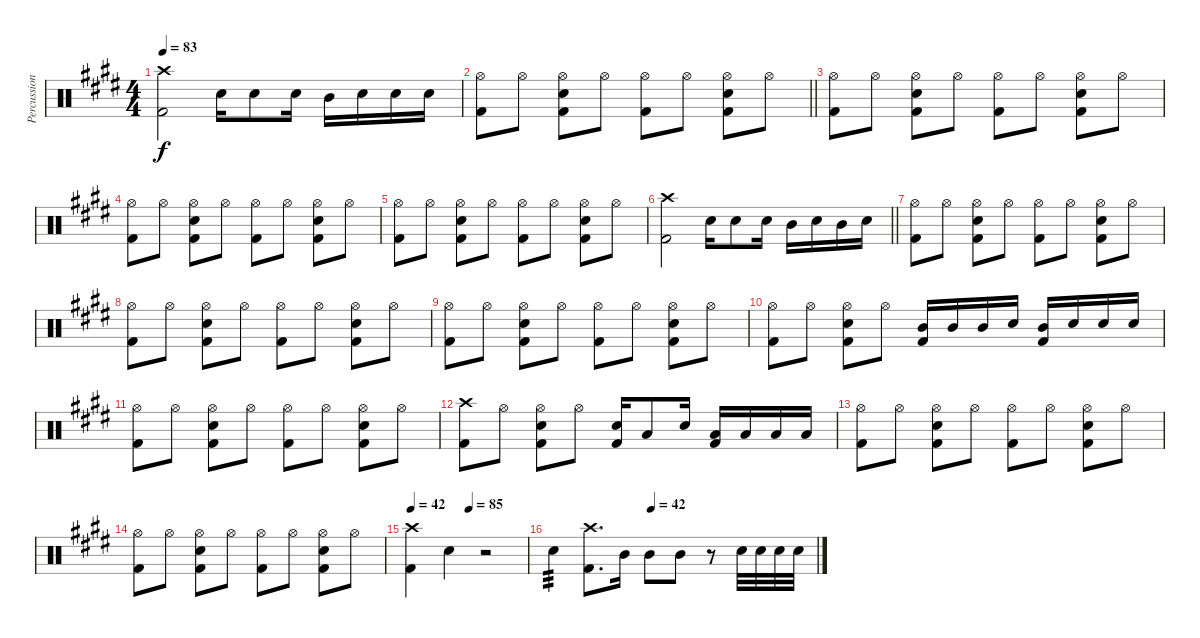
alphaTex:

\track ("Percussion" "Percussion") {instrument percussion}
\staff {score}
\articulation defaults
\ts (4 4)
\tempo 83
\clef neutral
\ks e
("Crash high (hit)" "Kick (hit) 2").2{dy f} "Snare (hit) 2".16 "Snare (hit) 2".8 "Snare (hit) 2".16 "Mid Tom (hit)".16 "Snare (hit) 2".16 "Snare (hit) 2".16 "Snare (hit) 2".16 |
\barLineRight lightlight
("Hi-Hat (open)" "Kick (hit) 2").8 "Hi-Hat (open)".8 ("Hi-Hat (open)" "Kick (hit) 2" "Snare (hit) 2").8 "Hi-Hat (open)".8 ("Hi-Hat (open)" "Kick (hit) 2").8 "Hi-Hat (open)".8 ("Hi-Hat (open)" "Kick (hit) 2" "Snare (hit) 2").8 "Hi-Hat (open)".8 |
("Hi-Hat (open)" "Kick (hit) 2").8 "Hi-Hat (open)".8 ("Hi-Hat (open)" "Kick (hit) 2" "Snare (hit) 2").8 "Hi-Hat (open)".8 ("Hi-Hat (open)" "Kick (hit) 2").8 "Hi-Hat (open)".8 ("Hi-Hat (open)" "Kick (hit) 2" "Snare (hit) 2").8 "Hi-Hat (open)".8 |
("Hi-Hat (open)" "Kick (hit) 2").8 "Hi-Hat (open)".8 ("Hi-Hat (open)" "Kick (hit) 2" "Snare (hit) 2").8 "Hi-Hat (open)".8 ("Hi-Hat (open)" "Kick (hit) 2").8 "Hi-Hat (open)".8 ("Hi-Hat (open)" "Kick (hit) 2" "Snare (hit) 2").8 "Hi-Hat (open)".8 |
("Hi-Hat (open)" "Kick (hit) 2").8 "Hi-Hat (open)".8 ("Hi-Hat (open)" "Kick (hit) 2" "Snare (hit) 2").8 "Hi-Hat (open)".8 ("Hi-Hat (open)" "Kick (hit) 2").8 "Hi-Hat (open)".8 ("Hi-Hat (open)" "Kick (hit) 2" "Snare (hit) 2").8 "Hi-Hat (open)".8 |
\barLineRight lightlight
("Crash high (hit)" "Kick (hit) 2").2 "Snare (hit) 2".16 "Snare (hit) 2".8 "Snare (hit) 2".16 "Mid Tom (hit)".16 "Snare (hit) 2".16 "Mid Tom (hit)".16 "Snare (hit) 2".16 |
("Hi-Hat (open)" "Kick (hit) 2").8 "Hi-Hat (open)".8 ("Hi-Hat (open)" "Kick (hit) 2" "Snare (hit) 2").8 "Hi-Hat (open)".8 ("Hi-Hat (open)" "Kick (hit) 2").8 "Hi-Hat (open)".8 ("Hi-Hat (open)" "Kick (hit) 2" "Snare (hit) 2").8 "Hi-Hat (open)".8 |
("Hi-Hat (open)" "Kick (hit) 2").8 "Hi-Hat (open)".8 ("Hi-Hat (open)" "Kick (hit) 2" "Snare (hit) 2").8 "Hi-Hat (open)".8 ("Hi-Hat (open)" "Kick (hit) 2").8 "Hi-Hat (open)".8 ("Hi-Hat (open)" "Kick (hit) 2" "Snare (hit) 2").8 "Hi-Hat (open)".8 |
("Hi-Hat (open)" "Kick (hit) 2").8 "Hi-Hat (open)".8 ("Hi-Hat (open)" "Kick (hit) 2" "Snare (hit) 2").8 "Hi-Hat (open)".8 ("Hi-Hat (open)" "Kick (hit) 2").8 "Hi-Hat (open)".8 ("Hi-Hat (open)" "Kick (hit) 2" "Snare (hit) 2").8 "Hi-Hat (open)".8 |
("Hi-Hat (open)" "Kick (hit) 2").8 "Hi-Hat (open)".8 ("Hi-Hat (open)" "Kick (hit) 2" "Snare (hit) 2").8 "Hi-Hat (open)".8 ("Mid Tom (hit)" "Kick (hit) 2").16 "Mid Tom (hit)".16 "Mid Tom (hit)".16 "Snare (hit) 2".16 ("Mid Tom (hit)" "Kick (hit) 2").16 "Snare (hit) 2".16 "Snare (hit) 2".16 "Snare (hit) 2".16 |
("Hi-Hat (open)" "Kick (hit) 2").8 "Hi-Hat (open)".8 ("Hi-Hat (open)" "Kick (hit) 2" "Snare (hit) 2").8 "Hi-Hat (open)".8 ("Hi-Hat (open)" "Kick (hit) 2").8 "Hi-Hat (open)".8 ("Hi-Hat (open)" "Kick (hit) 2" "Snare (hit) 2").8 "Hi-Hat (open)".8 |
("Crash high (hit)" "Kick (hit) 2").8 "Hi-Hat (open)".8 ("Hi-Hat (open)" "Snare (hit) 2" "Kick (hit) 2").8 "Hi-Hat (open)".8 ("Snare (hit) 2" "Kick (hit) 2").16 "Low Floor Tom (hit)".8 "Snare (hit) 2".16 ("Low Floor Tom (hit)" "Kick (hit) 2").16 "Low Floor Tom (hit)".16 "Low Floor Tom (hit)".16 "Low Floor Tom (hit)".16 |
("Hi-Hat (open)" "Kick (hit) 2").8 "Hi-Hat (open)".8 ("Hi-Hat (open)" "Kick (hit) 2" "Snare (hit) 2").8 "Hi-Hat (open)".8 ("Hi-Hat (open)" "Kick (hit) 2").8 "Hi-Hat (open)".8 ("Hi-Hat (open)" "Kick (hit) 2" "Snare (hit) 2").8 "Hi-Hat (open)".8 |
("Hi-Hat (open)" "Kick (hit) 2").8 "Hi-Hat (open)".8 ("Hi-Hat (open)" "Kick (hit) 2" "Snare (hit) 2").8 "Hi-Hat (open)".8 ("Hi-Hat (open)" "Kick (hit) 2").8 "Hi-Hat (open)".8 ("Hi-Hat (open)" "Kick (hit) 2" "Snare (hit) 2").8 "Hi-Hat (open)".8 |
\tempo 42
\tempo (85 0.5)
("Crash high (hit)" "Kick (hit) 2").4 "Snare (hit) 2".4 r.2 |
\tempo (42 0.375)
"Snare (hit) 2".4{tp 3} ("Crash high (hit)" "Kick (hit) 2").8{d} "Mid Tom (hit)".16 "Mid Tom (hit)".8 "Mid Tom (hit)".8 r.8 "Snare (hit) 2".32 "Snare (hit) 2".32 "Snare (hit) 2".32 "Snare (hit) 2".32
